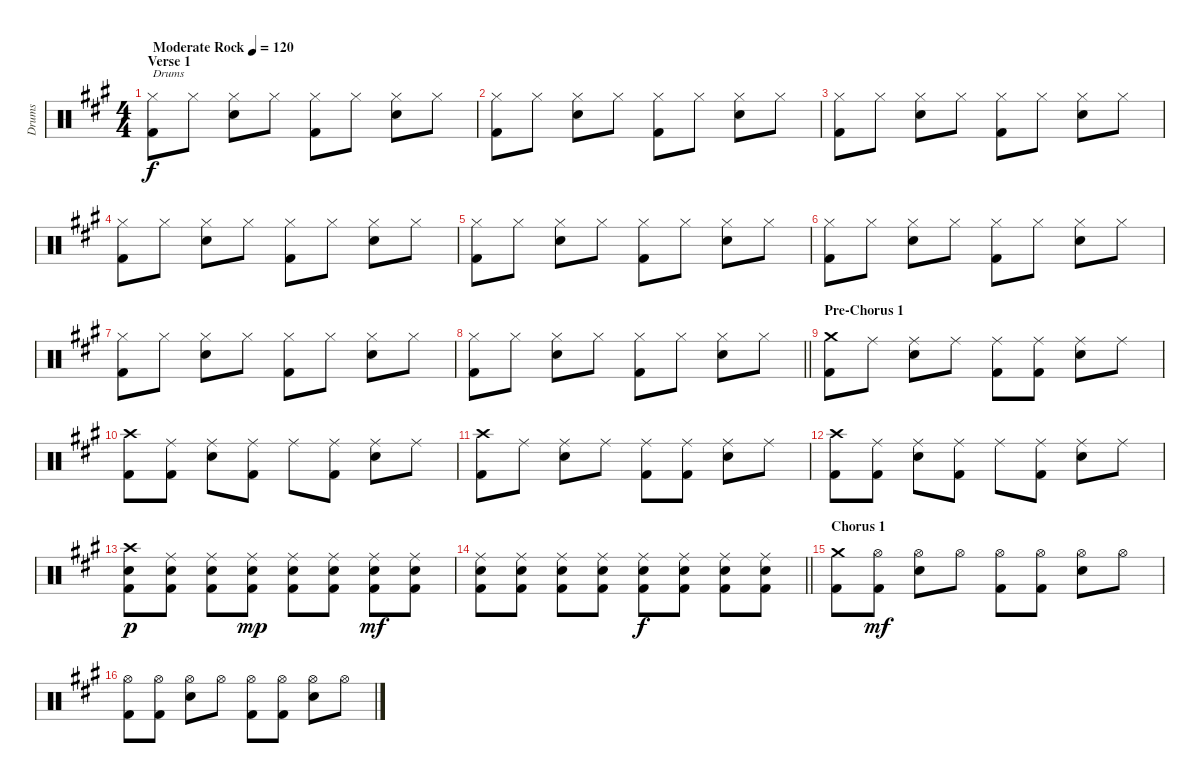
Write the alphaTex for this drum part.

\track ("Drums" "Drums") {instrument percussion}
\staff {score}
\articulation defaults
\ts (4 4)
\section ("" "Verse 1")
\tempo (120 "Moderate Rock")
\clef neutral
\ks a
("Hi-Hat (closed)" "Kick (hit) 2").8{txt "Drums" dy f} "Hi-Hat (closed)".8 ("Hi-Hat (closed)" "Electric Snare (hit)").8 "Hi-Hat (closed)".8 ("Hi-Hat (closed)" "Kick (hit) 2").8 "Hi-Hat (closed)".8 ("Hi-Hat (closed)" "Electric Snare (hit)").8 "Hi-Hat (closed)".8 |
("Hi-Hat (closed)" "Kick (hit) 2").8 "Hi-Hat (closed)".8 ("Hi-Hat (closed)" "Electric Snare (hit)").8 "Hi-Hat (closed)".8 ("Hi-Hat (closed)" "Kick (hit) 2").8 "Hi-Hat (closed)".8 ("Hi-Hat (closed)" "Electric Snare (hit)").8 "Hi-Hat (closed)".8 |
("Hi-Hat (closed)" "Kick (hit) 2").8 "Hi-Hat (closed)".8 ("Hi-Hat (closed)" "Electric Snare (hit)").8 "Hi-Hat (closed)".8 ("Hi-Hat (closed)" "Kick (hit) 2").8 "Hi-Hat (closed)".8 ("Hi-Hat (closed)" "Electric Snare (hit)").8 "Hi-Hat (closed)".8 |
("Hi-Hat (closed)" "Kick (hit) 2").8 "Hi-Hat (closed)".8 ("Hi-Hat (closed)" "Electric Snare (hit)").8 "Hi-Hat (closed)".8 ("Hi-Hat (closed)" "Kick (hit) 2").8 "Hi-Hat (closed)".8 ("Hi-Hat (closed)" "Electric Snare (hit)").8 "Hi-Hat (closed)".8 |
("Hi-Hat (closed)" "Kick (hit) 2").8 "Hi-Hat (closed)".8 ("Hi-Hat (closed)" "Electric Snare (hit)").8 "Hi-Hat (closed)".8 ("Hi-Hat (closed)" "Kick (hit) 2").8 "Hi-Hat (closed)".8 ("Hi-Hat (closed)" "Electric Snare (hit)").8 "Hi-Hat (closed)".8 |
("Hi-Hat (closed)" "Kick (hit) 2").8 "Hi-Hat (closed)".8 ("Hi-Hat (closed)" "Electric Snare (hit)").8 "Hi-Hat (closed)".8 ("Hi-Hat (closed)" "Kick (hit) 2").8 "Hi-Hat (closed)".8 ("Hi-Hat (closed)" "Snare (hit) 2").8 "Hi-Hat (closed)".8 |
("Hi-Hat (closed)" "Kick (hit) 2").8 "Hi-Hat (closed)".8 ("Hi-Hat (closed)" "Electric Snare (hit)").8 "Hi-Hat (closed)".8 ("Hi-Hat (closed)" "Kick (hit) 2").8 "Hi-Hat (closed)".8 ("Hi-Hat (closed)" "Electric Snare (hit)").8 "Hi-Hat (closed)".8 |
\barLineRight lightlight
("Hi-Hat (closed)" "Kick (hit) 2").8 "Hi-Hat (closed)".8 ("Hi-Hat (closed)" "Electric Snare (hit)").8 "Hi-Hat (closed)".8 ("Hi-Hat (closed)" "Kick (hit) 2").8 "Hi-Hat (closed)".8 ("Hi-Hat (closed)" "Electric Snare (hit)").8 "Hi-Hat (closed)".8 |
\section ("" "Pre-Chorus 1")
("Crash medium (hit)" "Kick (hit) 2").8 "Ride (middle)".8 ("Ride (middle)" "Electric Snare (hit)").8 "Ride (middle)".8 ("Ride (middle)" "Kick (hit) 2").8 ("Ride (middle)" "Kick (hit) 2").8 ("Ride (middle)" "Electric Snare (hit)").8 "Ride (middle)".8 |
("Crash high (hit)" "Kick (hit) 2").8 ("Ride (middle)" "Kick (hit) 2").8 ("Ride (middle)" "Electric Snare (hit)").8 ("Ride (middle)" "Kick (hit) 2").8 "Ride (middle)".8 ("Ride (middle)" "Kick (hit) 2").8 ("Ride (middle)" "Electric Snare (hit)").8 "Ride (middle)".8 |
("Crash high (hit)" "Kick (hit) 2").8 "Ride (middle)".8 ("Ride (middle)" "Electric Snare (hit)").8 "Ride (middle)".8 ("Ride (middle)" "Kick (hit) 2").8 ("Ride (middle)" "Kick (hit) 2").8 ("Ride (middle)" "Electric Snare (hit)").8 "Ride (middle)".8 |
("Crash high (hit)" "Kick (hit) 2").8 ("Ride (middle)" "Kick (hit) 2").8 ("Ride (middle)" "Snare (hit) 2").8 ("Ride (middle)" "Kick (hit) 2").8 "Ride (middle)".8 ("Ride (middle)" "Kick (hit) 2").8 ("Ride (middle)" "Electric Snare (hit)").8 "Ride (middle)".8 |
("Crash high (hit)" "Electric Snare (hit)" "Kick (hit) 2").8{dy p} ("Ride (middle)" "Electric Snare (hit)" "Kick (hit) 2").8 ("Ride (middle)" "Electric Snare (hit)" "Kick (hit) 2").8 ("Ride (middle)" "Electric Snare (hit)" "Kick (hit) 2").8{dy mp} ("Ride (middle)" "Electric Snare (hit)" "Kick (hit) 2").8 ("Ride (middle)" "Electric Snare (hit)" "Kick (hit) 2").8 ("Ride (middle)" "Electric Snare (hit)" "Kick (hit) 2").8{dy mf} ("Ride (middle)" "Electric Snare (hit)" "Kick (hit) 2").8 |
\barLineRight lightlight
("Ride (middle)" "Electric Snare (hit)" "Kick (hit) 2").8 ("Ride (middle)" "Electric Snare (hit)" "Kick (hit) 2").8 ("Ride (middle)" "Electric Snare (hit)" "Kick (hit) 2").8 ("Ride (middle)" "Electric Snare (hit)" "Kick (hit) 2").8 ("Ride (middle)" "Electric Snare (hit)" "Kick (hit) 2").8{dy f} ("Ride (middle)" "Electric Snare (hit)" "Kick (hit) 2").8 ("Ride (middle)" "Electric Snare (hit)" "Kick (hit) 2").8 ("Ride (middle)" "Electric Snare (hit)" "Kick (hit) 2").8 |
\section ("" "Chorus 1")
("Crash medium (hit)" "Kick (hit) 2").8 ("Hi-Hat (open)" "Kick (hit) 2").8{dy mf} ("Hi-Hat (open)" "Electric Snare (hit)").8 "Hi-Hat (open)".8 ("Hi-Hat (open)" "Kick (hit) 2").8 ("Hi-Hat (open)" "Kick (hit) 2").8 ("Hi-Hat (open)" "Electric Snare (hit)").8 "Hi-Hat (open)".8 |
("Hi-Hat (open)" "Kick (hit) 2").8 ("Hi-Hat (open)" "Kick (hit) 2").8 ("Hi-Hat (open)" "Electric Snare (hit)").8 "Hi-Hat (open)".8 ("Hi-Hat (open)" "Kick (hit) 2").8 ("Hi-Hat (open)" "Kick (hit) 2").8 ("Hi-Hat (open)" "Electric Snare (hit)").8 "Hi-Hat (open)".8
